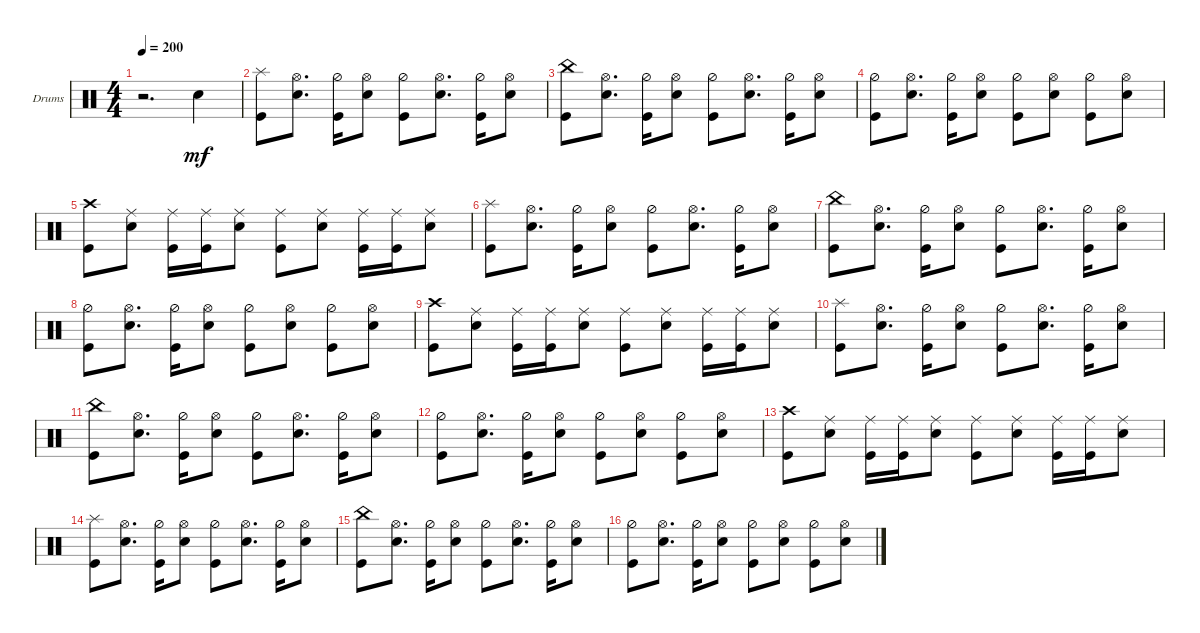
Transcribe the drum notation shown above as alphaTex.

\defaultSystemsLayout 4
\bracketExtendMode groupsimilarinstruments
\firstSystemTrackNameOrientation horizontal
\otherSystemsTrackNameOrientation horizontal
\track ("Hell on da drums" "Drums") {instrument percussion}
\staff {score}
\articulation defaults
\ts (4 4)
\tempo 200
\clef neutral
\ks c
r.2{d dy mf} "Snare (hit) 2".4 |
("Kick (hit)" "Splash (hit)").8 ("Snare (hit) 2" "Hi-Hat (open)").8{d} ("Kick (hit)" "Hi-Hat (half)").16 ("Snare (hit) 2" "Hi-Hat (open)").8 ("Kick (hit)" "Hi-Hat (half)").8 ("Snare (hit) 2" "Hi-Hat (open)").8{d} ("Kick (hit)" "Hi-Hat (half)").16 ("Snare (hit) 2" "Hi-Hat (open)").8 |
("Kick (hit)" "China (hit)").8 ("Snare (hit) 2" "Hi-Hat (open)").8{d} ("Kick (hit)" "Hi-Hat (half)").16 ("Snare (hit) 2" "Hi-Hat (open)").8 ("Kick (hit)" "Hi-Hat (half)").8 ("Snare (hit) 2" "Hi-Hat (open)").8{d} ("Kick (hit)" "Hi-Hat (half)").16 ("Snare (hit) 2" "Hi-Hat (open)").8 |
("Kick (hit)" "Hi-Hat (half)").8 ("Snare (hit) 2" "Hi-Hat (open)").8{d} ("Kick (hit)" "Hi-Hat (half)").16 ("Snare (hit) 2" "Hi-Hat (open)").8 ("Kick (hit)" "Hi-Hat (half)").8 ("Snare (hit) 2" "Hi-Hat (open)").8 ("Kick (hit)" "Hi-Hat (half)").8 ("Snare (hit) 2" "Hi-Hat (open)").8 |
("Kick (hit)" "Crash high (hit)").8 ("Snare (hit) 2" "Ride (middle)").8 ("Kick (hit)" "Ride (middle)").16 ("Kick (hit)" "Ride (middle)").16 ("Snare (hit) 2" "Ride (middle)").8 ("Kick (hit)" "Ride (middle)").8 ("Snare (hit) 2" "Ride (middle)").8 ("Kick (hit)" "Ride (middle)").16 ("Kick (hit)" "Ride (middle)").16 ("Snare (hit) 2" "Ride (middle)").8 |
("Kick (hit)" "Splash (hit)").8 ("Snare (hit) 2" "Hi-Hat (open)").8{d} ("Kick (hit)" "Hi-Hat (half)").16 ("Snare (hit) 2" "Hi-Hat (open)").8 ("Kick (hit)" "Hi-Hat (half)").8 ("Snare (hit) 2" "Hi-Hat (open)").8{d} ("Kick (hit)" "Hi-Hat (half)").16 ("Snare (hit) 2" "Hi-Hat (open)").8 |
("Kick (hit)" "China (hit)").8 ("Snare (hit) 2" "Hi-Hat (open)").8{d} ("Kick (hit)" "Hi-Hat (half)").16 ("Snare (hit) 2" "Hi-Hat (open)").8 ("Kick (hit)" "Hi-Hat (half)").8 ("Snare (hit) 2" "Hi-Hat (open)").8{d} ("Kick (hit)" "Hi-Hat (half)").16 ("Snare (hit) 2" "Hi-Hat (open)").8 |
("Kick (hit)" "Hi-Hat (half)").8 ("Snare (hit) 2" "Hi-Hat (open)").8{d} ("Kick (hit)" "Hi-Hat (half)").16 ("Snare (hit) 2" "Hi-Hat (open)").8 ("Kick (hit)" "Hi-Hat (half)").8 ("Snare (hit) 2" "Hi-Hat (open)").8 ("Kick (hit)" "Hi-Hat (half)").8 ("Snare (hit) 2" "Hi-Hat (open)").8 |
("Kick (hit)" "Crash high (hit)").8 ("Snare (hit) 2" "Ride (middle)").8 ("Kick (hit)" "Ride (middle)").16 ("Kick (hit)" "Ride (middle)").16 ("Snare (hit) 2" "Ride (middle)").8 ("Kick (hit)" "Ride (middle)").8 ("Snare (hit) 2" "Ride (middle)").8 ("Kick (hit)" "Ride (middle)").16 ("Kick (hit)" "Ride (middle)").16 ("Snare (hit) 2" "Ride (middle)").8 |
("Kick (hit)" "Splash (hit)").8 ("Snare (hit) 2" "Hi-Hat (open)").8{d} ("Kick (hit)" "Hi-Hat (half)").16 ("Snare (hit) 2" "Hi-Hat (open)").8 ("Kick (hit)" "Hi-Hat (half)").8 ("Snare (hit) 2" "Hi-Hat (open)").8{d} ("Kick (hit)" "Hi-Hat (half)").16 ("Snare (hit) 2" "Hi-Hat (open)").8 |
("Kick (hit)" "China (hit)").8 ("Snare (hit) 2" "Hi-Hat (open)").8{d} ("Kick (hit)" "Hi-Hat (half)").16 ("Snare (hit) 2" "Hi-Hat (open)").8 ("Kick (hit)" "Hi-Hat (half)").8 ("Snare (hit) 2" "Hi-Hat (open)").8{d} ("Kick (hit)" "Hi-Hat (half)").16 ("Snare (hit) 2" "Hi-Hat (open)").8 |
("Kick (hit)" "Hi-Hat (half)").8 ("Snare (hit) 2" "Hi-Hat (open)").8{d} ("Kick (hit)" "Hi-Hat (half)").16 ("Snare (hit) 2" "Hi-Hat (open)").8 ("Kick (hit)" "Hi-Hat (half)").8 ("Snare (hit) 2" "Hi-Hat (open)").8 ("Kick (hit)" "Hi-Hat (half)").8 ("Snare (hit) 2" "Hi-Hat (open)").8 |
("Kick (hit)" "Crash high (hit)").8 ("Snare (hit) 2" "Ride (middle)").8 ("Kick (hit)" "Ride (middle)").16 ("Kick (hit)" "Ride (middle)").16 ("Snare (hit) 2" "Ride (middle)").8 ("Kick (hit)" "Ride (middle)").8 ("Snare (hit) 2" "Ride (middle)").8 ("Kick (hit)" "Ride (middle)").16 ("Kick (hit)" "Ride (middle)").16 ("Snare (hit) 2" "Ride (middle)").8 |
("Kick (hit)" "Splash (hit)").8 ("Snare (hit) 2" "Hi-Hat (open)").8{d} ("Kick (hit)" "Hi-Hat (half)").16 ("Snare (hit) 2" "Hi-Hat (open)").8 ("Kick (hit)" "Hi-Hat (half)").8 ("Snare (hit) 2" "Hi-Hat (open)").8{d} ("Kick (hit)" "Hi-Hat (half)").16 ("Snare (hit) 2" "Hi-Hat (open)").8 |
("Kick (hit)" "China (hit)").8 ("Snare (hit) 2" "Hi-Hat (open)").8{d} ("Kick (hit)" "Hi-Hat (half)").16 ("Snare (hit) 2" "Hi-Hat (open)").8 ("Kick (hit)" "Hi-Hat (half)").8 ("Snare (hit) 2" "Hi-Hat (open)").8{d} ("Kick (hit)" "Hi-Hat (half)").16 ("Snare (hit) 2" "Hi-Hat (open)").8 |
("Kick (hit)" "Hi-Hat (half)").8 ("Snare (hit) 2" "Hi-Hat (open)").8{d} ("Kick (hit)" "Hi-Hat (half)").16 ("Snare (hit) 2" "Hi-Hat (open)").8 ("Kick (hit)" "Hi-Hat (half)").8 ("Snare (hit) 2" "Hi-Hat (open)").8 ("Kick (hit)" "Hi-Hat (half)").8 ("Snare (hit) 2" "Hi-Hat (open)").8
